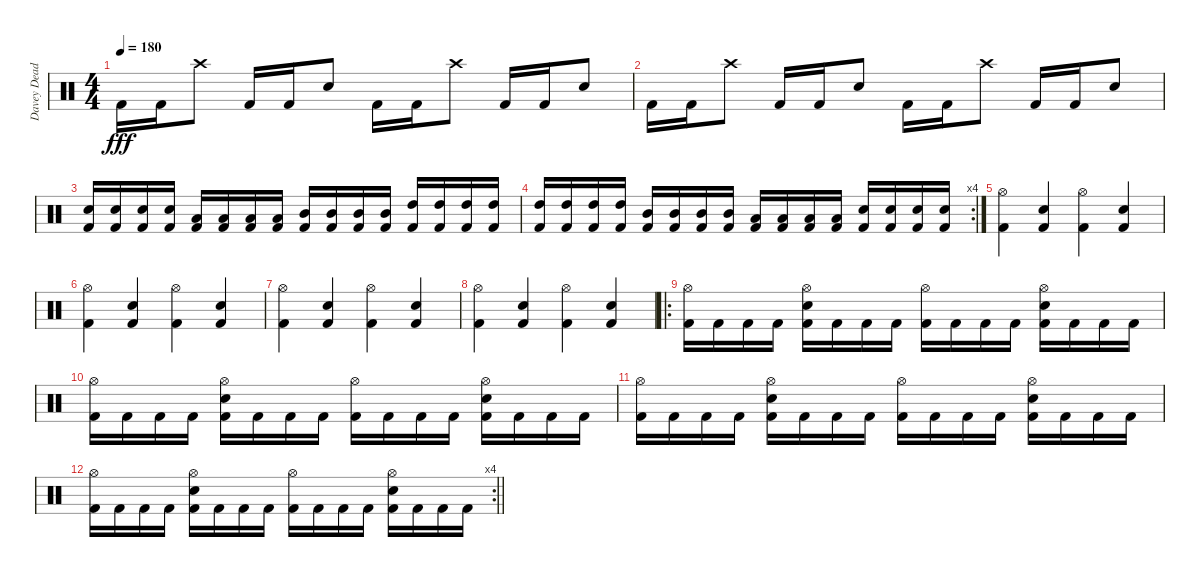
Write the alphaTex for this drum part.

\track ("Davey Dead" "Davey Dead") {instrument percussion}
\staff {score}
\articulation defaults
\ts (4 4)
\tempo 180
\clef neutral
\ks c "Kick (hit) 2".16{dy fff} "Kick (hit) 2".16 "Crash high (hit)".8 "Kick (hit) 2".16 "Kick (hit) 2".16 "Electric Snare (hit)".8 "Kick (hit) 2".16 "Kick (hit) 2".16 "Crash high (hit)".8 "Kick (hit) 2".16 "Kick (hit) 2".16 "Electric Snare (hit)".8
|
"Kick (hit) 2".16 "Kick (hit) 2".16 "Crash high (hit)".8 "Kick (hit) 2".16 "Kick (hit) 2".16 "Electric Snare (hit)".8 "Kick (hit) 2".16 "Kick (hit) 2".16 "Crash high (hit)".8 "Kick (hit) 2".16 "Kick (hit) 2".16 "Electric Snare (hit)".8 |
("Electric Snare (hit)" "Kick (hit) 2").16 ("Electric Snare (hit)" "Kick (hit) 2").16 ("Electric Snare (hit)" "Kick (hit) 2").16 ("Electric Snare (hit)" "Kick (hit) 2").16 ("Low Tom (hit)" "Kick (hit) 2").16 ("Low Tom (hit)" "Kick (hit) 2").16 ("Low Tom (hit)" "Kick (hit) 2").16 ("Low Tom (hit)" "Kick (hit) 2").16 ("Mid Tom (hit)" "Kick (hit) 2").16 ("Mid Tom (hit)" "Kick (hit) 2").16 ("Mid Tom (hit)" "Kick (hit) 2").16 ("Mid Tom (hit)" "Kick (hit) 2").16 ("High Tom (hit)" "Kick (hit) 2").16 ("High Tom (hit)" "Kick (hit) 2").16 ("High Tom (hit)" "Kick (hit) 2").16 ("High Tom (hit)" "Kick (hit) 2").16 |
\rc 4
("High Tom (hit)" "Kick (hit) 2").16 ("High Tom (hit)" "Kick (hit) 2").16 ("High Tom (hit)" "Kick (hit) 2").16 ("High Tom (hit)" "Kick (hit) 2").16 ("Mid Tom (hit)" "Kick (hit) 2").16 ("Mid Tom (hit)" "Kick (hit) 2").16 ("Mid Tom (hit)" "Kick (hit) 2").16 ("Mid Tom (hit)" "Kick (hit) 2").16 ("Low Tom (hit)" "Kick (hit) 2").16 ("Low Tom (hit)" "Kick (hit) 2").16 ("Low Tom (hit)" "Kick (hit) 2").16 ("Low Tom (hit)" "Kick (hit) 2").16 ("Electric Snare (hit)" "Kick (hit) 2").16 ("Electric Snare (hit)" "Kick (hit) 2").16 ("Electric Snare (hit)" "Kick (hit) 2").16 ("Electric Snare (hit)" "Kick (hit) 2").16 |
("Hi-Hat (open)" "Kick (hit) 2").4 ("Electric Snare (hit)" "Kick (hit) 2").4 ("Hi-Hat (open)" "Kick (hit) 2").4 ("Electric Snare (hit)" "Kick (hit) 2").4 |
("Hi-Hat (open)" "Kick (hit) 2").4 ("Electric Snare (hit)" "Kick (hit) 2").4 ("Hi-Hat (open)" "Kick (hit) 2").4 ("Electric Snare (hit)" "Kick (hit) 2").4 |
("Hi-Hat (open)" "Kick (hit) 2").4 ("Electric Snare (hit)" "Kick (hit) 2").4 ("Hi-Hat (open)" "Kick (hit) 2").4 ("Electric Snare (hit)" "Kick (hit) 2").4 |
("Hi-Hat (open)" "Kick (hit) 2").4 ("Electric Snare (hit)" "Kick (hit) 2").4 ("Hi-Hat (open)" "Kick (hit) 2").4 ("Electric Snare (hit)" "Kick (hit) 2").4 |
\ro
("Hi-Hat (open)" "Kick (hit) 2").16 "Kick (hit) 2".16 "Kick (hit) 2".16 "Kick (hit) 2".16 ("Hi-Hat (open)" "Electric Snare (hit)" "Kick (hit) 2").16 "Kick (hit) 2".16 "Kick (hit) 2".16 "Kick (hit) 2".16 ("Hi-Hat (open)" "Kick (hit) 2").16 "Kick (hit) 2".16 "Kick (hit) 2".16 "Kick (hit) 2".16 ("Hi-Hat (open)" "Electric Snare (hit)" "Kick (hit) 2").16 "Kick (hit) 2".16 "Kick (hit) 2".16 "Kick (hit) 2".16 |
("Hi-Hat (open)" "Kick (hit) 2").16 "Kick (hit) 2".16 "Kick (hit) 2".16 "Kick (hit) 2".16 ("Hi-Hat (open)" "Electric Snare (hit)" "Kick (hit) 2").16 "Kick (hit) 2".16 "Kick (hit) 2".16 "Kick (hit) 2".16 ("Hi-Hat (open)" "Kick (hit) 2").16 "Kick (hit) 2".16 "Kick (hit) 2".16 "Kick (hit) 2".16 ("Hi-Hat (open)" "Electric Snare (hit)" "Kick (hit) 2").16 "Kick (hit) 2".16 "Kick (hit) 2".16 "Kick (hit) 2".16 |
("Hi-Hat (open)" "Kick (hit) 2").16 "Kick (hit) 2".16 "Kick (hit) 2".16 "Kick (hit) 2".16 ("Hi-Hat (open)" "Electric Snare (hit)" "Kick (hit) 2").16 "Kick (hit) 2".16 "Kick (hit) 2".16 "Kick (hit) 2".16 ("Hi-Hat (open)" "Kick (hit) 2").16 "Kick (hit) 2".16 "Kick (hit) 2".16 "Kick (hit) 2".16 ("Hi-Hat (open)" "Electric Snare (hit)" "Kick (hit) 2").16 "Kick (hit) 2".16 "Kick (hit) 2".16 "Kick (hit) 2".16 |
\rc 4
\barLineRight lightlight
("Hi-Hat (open)" "Kick (hit) 2").16 "Kick (hit) 2".16 "Kick (hit) 2".16 "Kick (hit) 2".16 ("Hi-Hat (open)" "Electric Snare (hit)" "Kick (hit) 2").16 "Kick (hit) 2".16 "Kick (hit) 2".16 "Kick (hit) 2".16 ("Hi-Hat (open)" "Kick (hit) 2").16 "Kick (hit) 2".16 "Kick (hit) 2".16 "Kick (hit) 2".16 ("Hi-Hat (open)" "Electric Snare (hit)" "Kick (hit) 2").16 "Kick (hit) 2".16 "Kick (hit) 2".16 "Kick (hit) 2".16
